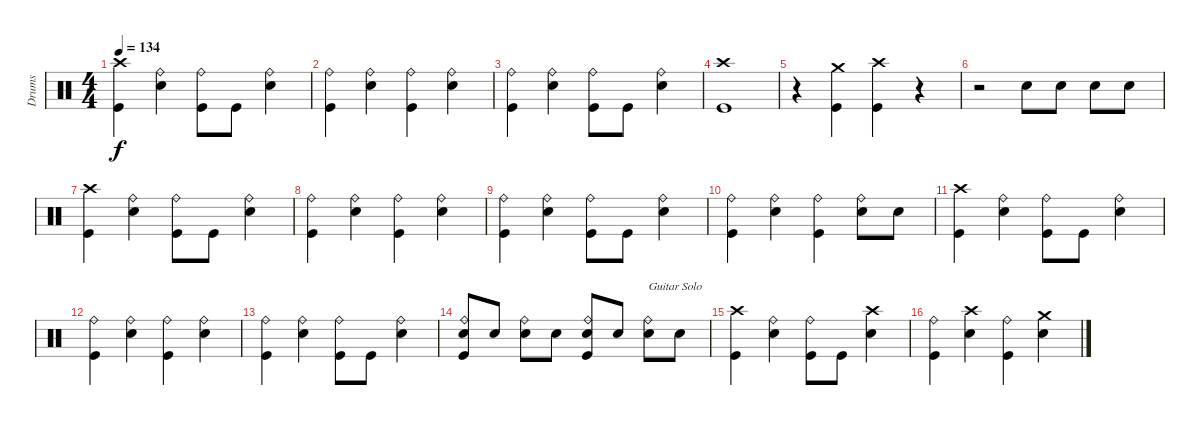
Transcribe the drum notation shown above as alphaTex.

\track ("Drums" "Drums") {instrument percussion}
\staff {score}
\articulation defaults
\ts (4 4)
\tempo 134
\clef neutral
\ks c
("Crash high (hit)" "Kick (hit)").4{dy f} ("Ride (bell)" "Snare (hit) 2").4 ("Ride (bell)" "Kick (hit)").8 "Kick (hit)".8 ("Ride (bell)" "Snare (hit) 2").4 |
("Ride (bell)" "Kick (hit)").4 ("Ride (bell)" "Snare (hit) 2").4 ("Ride (bell)" "Kick (hit)").4 ("Ride (bell)" "Snare (hit) 2").4 |
("Ride (bell)" "Kick (hit)").4 ("Ride (bell)" "Snare (hit) 2").4 ("Ride (bell)" "Kick (hit)").8 "Kick (hit)".8 ("Ride (bell)" "Snare (hit) 2").4 |
("Crash high (hit)" "Kick (hit)").1 |
r.4 ("Crash medium (hit)" "Kick (hit)").4 ("Crash high (hit)" "Kick (hit)").4 r.4 |
r.2 "Snare (hit) 2".8 "Snare (hit) 2".8 "Snare (hit) 2".8 "Snare (hit) 2".8 |
("Crash high (hit)" "Kick (hit)").4 ("Ride (bell)" "Snare (hit) 2").4 ("Ride (bell)" "Kick (hit)").8 "Kick (hit)".8 ("Ride (bell)" "Snare (hit) 2").4 |
("Ride (bell)" "Kick (hit)").4 ("Ride (bell)" "Snare (hit) 2").4 ("Ride (bell)" "Kick (hit)").4 ("Ride (bell)" "Snare (hit) 2").4 |
("Ride (bell)" "Kick (hit)").4 ("Ride (bell)" "Snare (hit) 2").4 ("Ride (bell)" "Kick (hit)").8 "Kick (hit)".8 ("Ride (bell)" "Snare (hit) 2").4 |
("Ride (bell)" "Kick (hit)").4 ("Ride (bell)" "Snare (hit) 2").4 ("Ride (bell)" "Kick (hit)").4 ("Ride (bell)" "Snare (hit) 2").8 "Snare (hit) 2".8 |
("Crash high (hit)" "Kick (hit)").4 ("Ride (bell)" "Snare (hit) 2").4 ("Ride (bell)" "Kick (hit)").8 "Kick (hit)".8 ("Ride (bell)" "Snare (hit) 2").4 |
("Ride (bell)" "Kick (hit)").4 ("Ride (bell)" "Snare (hit) 2").4 ("Ride (bell)" "Kick (hit)").4 ("Ride (bell)" "Snare (hit) 2").4 |
("Ride (bell)" "Kick (hit)").4 ("Ride (bell)" "Snare (hit) 2").4 ("Ride (bell)" "Kick (hit)").8 "Kick (hit)".8 ("Ride (bell)" "Snare (hit) 2").4 |
("Ride (bell)" "Snare (hit) 2" "Kick (hit)").8 "Snare (hit) 2".8 ("Ride (bell)" "Snare (hit) 2").8 "Snare (hit) 2".8 ("Ride (bell)" "Snare (hit) 2" "Kick (hit)").8 "Snare (hit) 2".8 ("Ride (bell)" "Snare (hit) 2").8{txt "Guitar Solo"} "Snare (hit) 2".8 |
("Crash high (hit)" "Kick (hit)").4 ("Ride (bell)" "Snare (hit) 2").4 ("Ride (bell)" "Kick (hit)").8 "Kick (hit)".8 ("Crash high (hit)" "Snare (hit) 2").4 |
("Ride (bell)" "Kick (hit)").4 ("Crash high (hit)" "Snare (hit) 2").4 ("Ride (bell)" "Kick (hit)").4 ("Crash medium (hit)" "Snare (hit) 2").4
